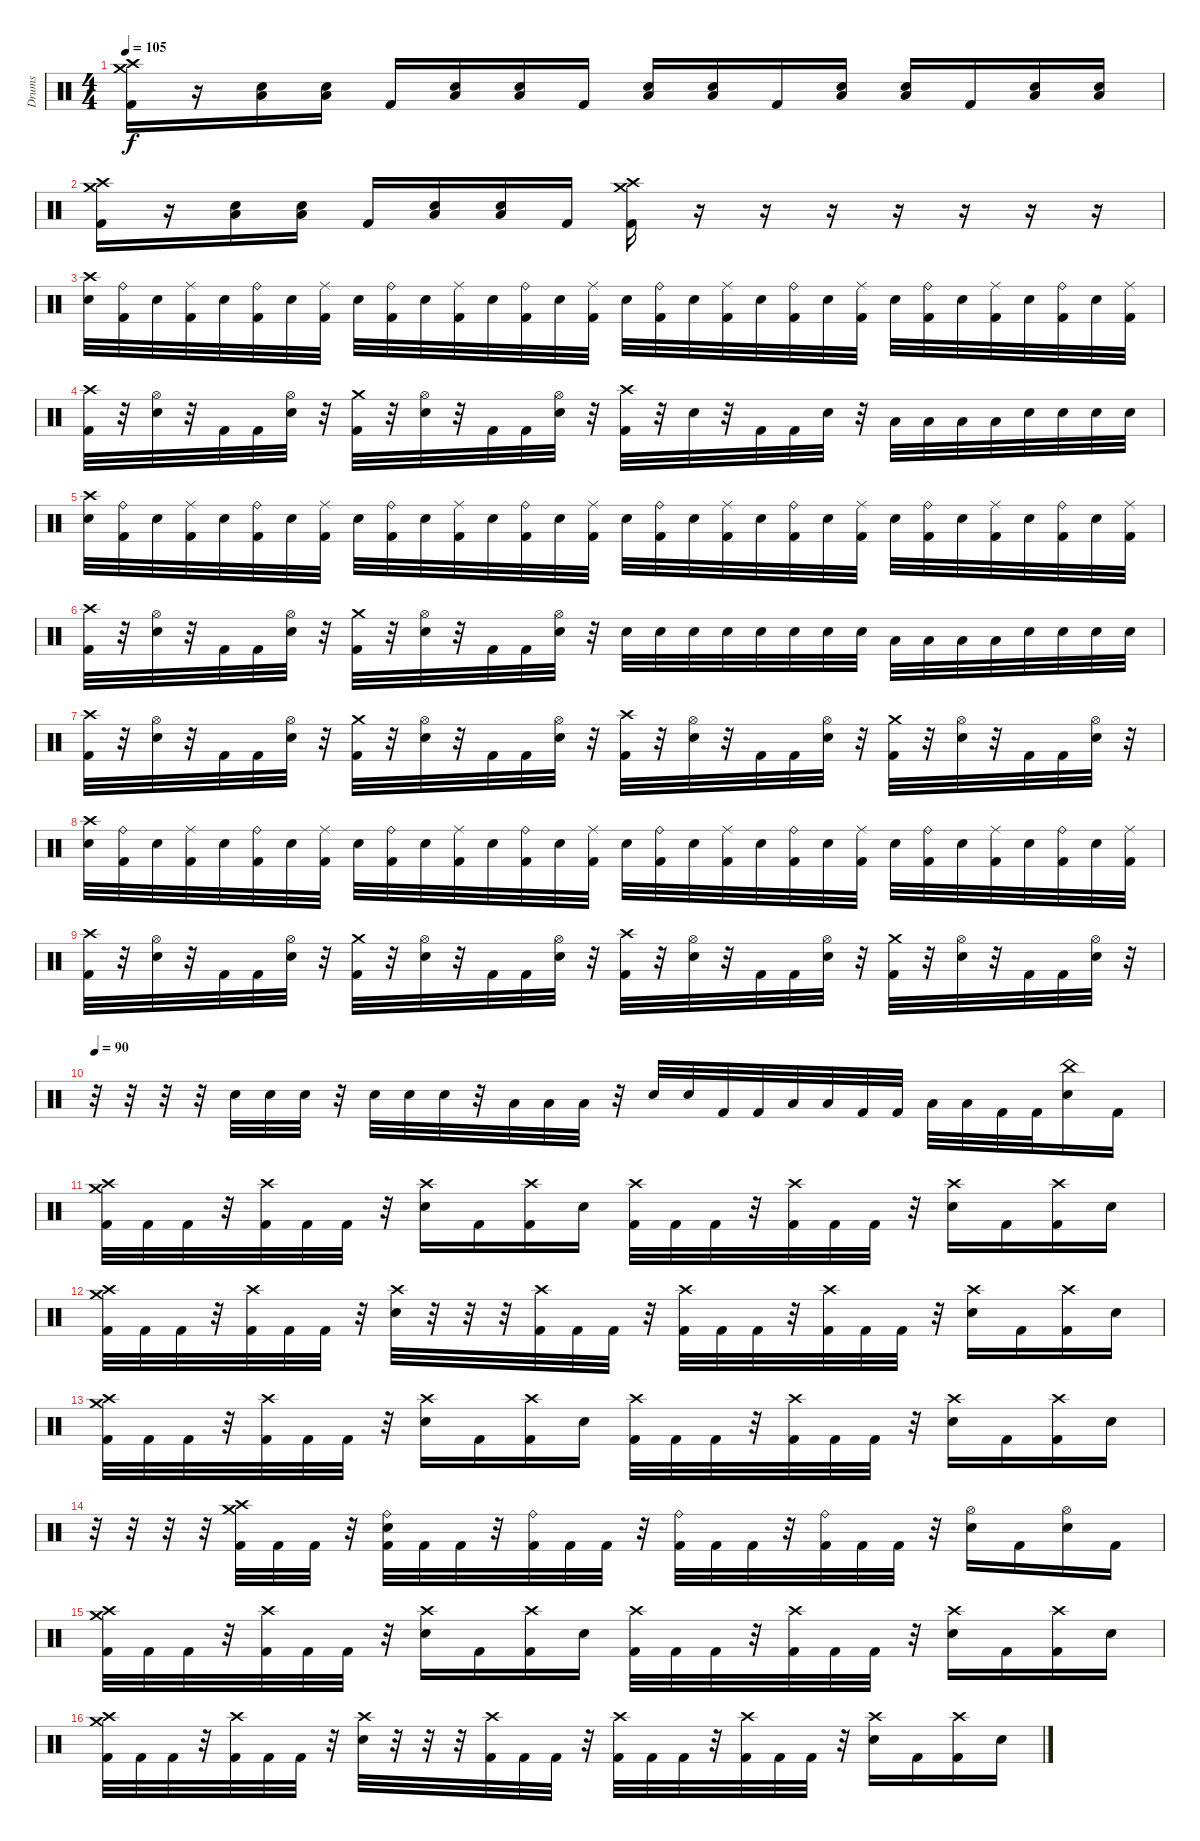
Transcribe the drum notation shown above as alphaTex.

\track ("Drums" "Drums") {instrument percussion}
\staff {score}
\articulation defaults
\ts (4 4)
\tempo 105
\clef neutral
\ks c
("Crash medium (hit)" "Crash high (hit)" "Kick (hit) 2").16{dy f} r.16 ("Low Floor Tom (hit)" "Electric Snare (hit)").16 ("Low Floor Tom (hit)" "Electric Snare (hit)").16 "Kick (hit) 2".16 ("Low Floor Tom (hit)" "Electric Snare (hit)").16 ("Low Floor Tom (hit)" "Electric Snare (hit)").16 "Kick (hit) 2".16 ("Low Floor Tom (hit)" "Electric Snare (hit)").16 ("Low Floor Tom (hit)" "Electric Snare (hit)").16 "Kick (hit) 2".16 ("Low Floor Tom (hit)" "Electric Snare (hit)").16 ("Low Floor Tom (hit)" "Electric Snare (hit)").16 "Kick (hit) 2".16 ("Low Floor Tom (hit)" "Electric Snare (hit)").16 ("Low Floor Tom (hit)" "Electric Snare (hit)").16 |
("Crash medium (hit)" "Crash high (hit)" "Kick (hit) 2").16 r.16 ("Low Floor Tom (hit)" "Electric Snare (hit)").16 ("Low Floor Tom (hit)" "Electric Snare (hit)").16 "Kick (hit) 2".16 ("Low Floor Tom (hit)" "Electric Snare (hit)").16 ("Low Floor Tom (hit)" "Electric Snare (hit)").16 "Kick (hit) 2".16 ("Crash high (hit)" "Crash medium (hit)" "Kick (hit) 2").16 r.16{volume 0} r.16 r.16 r.16 r.16 r.16 r.16 |
("Crash high (hit)" "Electric Snare (hit)").32{volume 13} ("Ride (bell)" "Kick (hit) 2").32 "Electric Snare (hit)".32 ("Ride (middle)" "Kick (hit) 2").32 "Electric Snare (hit)".32 ("Ride (bell)" "Kick (hit) 2").32 "Electric Snare (hit)".32 ("Ride (middle)" "Kick (hit) 2").32 "Electric Snare (hit)".32 ("Ride (bell)" "Kick (hit) 2").32 "Electric Snare (hit)".32 ("Ride (middle)" "Kick (hit) 2").32 "Electric Snare (hit)".32 ("Ride (bell)" "Kick (hit) 2").32 "Electric Snare (hit)".32 ("Ride (middle)" "Kick (hit) 2").32 "Electric Snare (hit)".32 ("Ride (bell)" "Kick (hit) 2").32 "Electric Snare (hit)".32 ("Ride (middle)" "Kick (hit) 2").32 "Electric Snare (hit)".32 ("Ride (bell)" "Kick (hit) 2").32 "Electric Snare (hit)".32 ("Ride (middle)" "Kick (hit) 2").32 "Electric Snare (hit)".32 ("Ride (bell)" "Kick (hit) 2").32 "Electric Snare (hit)".32 ("Ride (middle)" "Kick (hit) 2").32 "Electric Snare (hit)".32 ("Ride (bell)" "Kick (hit) 2").32 "Electric Snare (hit)".32 ("Ride (middle)" "Kick (hit) 2").32 |
("Crash high (hit)" "Kick (hit) 2").32 r.32 ("Hi-Hat (open)" "Electric Snare (hit)").32 r.32 "Kick (hit) 2".32 "Kick (hit) 2".32 ("Hi-Hat (open)" "Electric Snare (hit)").32 r.32 ("Crash medium (hit)" "Kick (hit) 2").32 r.32 ("Hi-Hat (open)" "Electric Snare (hit)").32 r.32 "Kick (hit) 2".32 "Kick (hit) 2".32 ("Hi-Hat (open)" "Electric Snare (hit)").32 r.32 ("Crash high (hit)" "Kick (hit) 2").32 r.32 "Electric Snare (hit)".32 r.32 "Kick (hit) 2".32 "Kick (hit) 2".32 "Electric Snare (hit)".32 r.32 "Low Tom (hit)".32 "Low Tom (hit)".32 "Low Tom (hit)".32 "Low Tom (hit)".32 "Electric Snare (hit)".32 "Electric Snare (hit)".32 "Electric Snare (hit)".32 "Electric Snare (hit)".32 |
("Crash high (hit)" "Electric Snare (hit)").32{volume 13} ("Ride (bell)" "Kick (hit) 2").32 "Electric Snare (hit)".32 ("Ride (middle)" "Kick (hit) 2").32 "Electric Snare (hit)".32 ("Ride (bell)" "Kick (hit) 2").32 "Electric Snare (hit)".32 ("Ride (middle)" "Kick (hit) 2").32 "Electric Snare (hit)".32 ("Ride (bell)" "Kick (hit) 2").32 "Electric Snare (hit)".32 ("Ride (middle)" "Kick (hit) 2").32 "Electric Snare (hit)".32 ("Ride (bell)" "Kick (hit) 2").32 "Electric Snare (hit)".32 ("Ride (middle)" "Kick (hit) 2").32 "Electric Snare (hit)".32 ("Ride (bell)" "Kick (hit) 2").32 "Electric Snare (hit)".32 ("Ride (middle)" "Kick (hit) 2").32 "Electric Snare (hit)".32 ("Ride (bell)" "Kick (hit) 2").32 "Electric Snare (hit)".32 ("Ride (middle)" "Kick (hit) 2").32 "Electric Snare (hit)".32 ("Ride (bell)" "Kick (hit) 2").32 "Electric Snare (hit)".32 ("Ride (middle)" "Kick (hit) 2").32 "Electric Snare (hit)".32 ("Ride (bell)" "Kick (hit) 2").32 "Electric Snare (hit)".32 ("Ride (middle)" "Kick (hit) 2").32 |
("Crash high (hit)" "Kick (hit) 2").32 r.32 ("Hi-Hat (open)" "Electric Snare (hit)").32 r.32 "Kick (hit) 2".32 "Kick (hit) 2".32 ("Hi-Hat (open)" "Electric Snare (hit)").32 r.32 ("Crash medium (hit)" "Kick (hit) 2").32 r.32 ("Hi-Hat (open)" "Electric Snare (hit)").32 r.32 "Kick (hit) 2".32 "Kick (hit) 2".32 ("Hi-Hat (open)" "Electric Snare (hit)").32 r.32 "Electric Snare (hit)".32 "Electric Snare (hit)".32 "Electric Snare (hit)".32 "Electric Snare (hit)".32 "Electric Snare (hit)".32 "Electric Snare (hit)".32 "Electric Snare (hit)".32 "Electric Snare (hit)".32 "Low Tom (hit)".32 "Low Tom (hit)".32 "Low Tom (hit)".32 "Low Tom (hit)".32 "Electric Snare (hit)".32 "Electric Snare (hit)".32 "Electric Snare (hit)".32 "Electric Snare (hit)".32 |
("Crash high (hit)" "Kick (hit) 2").32 r.32 ("Hi-Hat (open)" "Electric Snare (hit)").32 r.32 "Kick (hit) 2".32 "Kick (hit) 2".32 ("Hi-Hat (open)" "Electric Snare (hit)").32 r.32 ("Crash medium (hit)" "Kick (hit) 2").32 r.32 ("Hi-Hat (open)" "Electric Snare (hit)").32 r.32 "Kick (hit) 2".32 "Kick (hit) 2".32 ("Hi-Hat (open)" "Electric Snare (hit)").32 r.32 ("Crash high (hit)" "Kick (hit) 2").32 r.32 ("Hi-Hat (open)" "Electric Snare (hit)").32 r.32 "Kick (hit) 2".32 "Kick (hit) 2".32 ("Hi-Hat (open)" "Electric Snare (hit)").32 r.32 ("Crash medium (hit)" "Kick (hit) 2").32 r.32 ("Hi-Hat (open)" "Electric Snare (hit)").32 r.32 "Kick (hit) 2".32 "Kick (hit) 2".32 ("Hi-Hat (open)" "Electric Snare (hit)").32 r.32 |
("Crash high (hit)" "Electric Snare (hit)").32{volume 13} ("Ride (bell)" "Kick (hit) 2").32 "Electric Snare (hit)".32 ("Ride (middle)" "Kick (hit) 2").32 "Electric Snare (hit)".32 ("Ride (bell)" "Kick (hit) 2").32 "Electric Snare (hit)".32 ("Ride (middle)" "Kick (hit) 2").32 "Electric Snare (hit)".32 ("Ride (bell)" "Kick (hit) 2").32 "Electric Snare (hit)".32 ("Ride (middle)" "Kick (hit) 2").32 "Electric Snare (hit)".32 ("Ride (bell)" "Kick (hit) 2").32 "Electric Snare (hit)".32 ("Ride (middle)" "Kick (hit) 2").32 "Electric Snare (hit)".32 ("Ride (bell)" "Kick (hit) 2").32 "Electric Snare (hit)".32 ("Ride (middle)" "Kick (hit) 2").32 "Electric Snare (hit)".32 ("Ride (bell)" "Kick (hit) 2").32 "Electric Snare (hit)".32 ("Ride (middle)" "Kick (hit) 2").32 "Electric Snare (hit)".32 ("Ride (bell)" "Kick (hit) 2").32 "Electric Snare (hit)".32 ("Ride (middle)" "Kick (hit) 2").32 "Electric Snare (hit)".32 ("Ride (bell)" "Kick (hit) 2").32 "Electric Snare (hit)".32 ("Ride (middle)" "Kick (hit) 2").32 |
("Crash high (hit)" "Kick (hit) 2").32 r.32 ("Hi-Hat (open)" "Electric Snare (hit)").32 r.32 "Kick (hit) 2".32 "Kick (hit) 2".32 ("Hi-Hat (open)" "Electric Snare (hit)").32 r.32 ("Crash medium (hit)" "Kick (hit) 2").32 r.32 ("Hi-Hat (open)" "Electric Snare (hit)").32 r.32 "Kick (hit) 2".32 "Kick (hit) 2".32 ("Hi-Hat (open)" "Electric Snare (hit)").32 r.32 ("Crash high (hit)" "Kick (hit) 2").32 r.32 ("Hi-Hat (open)" "Electric Snare (hit)").32 r.32 "Kick (hit) 2".32 "Kick (hit) 2".32 ("Hi-Hat (open)" "Electric Snare (hit)").32 r.32 ("Crash medium (hit)" "Kick (hit) 2").32 r.32 ("Hi-Hat (open)" "Electric Snare (hit)").32 r.32 "Kick (hit) 2".32 "Kick (hit) 2".32 ("Hi-Hat (open)" "Electric Snare (hit)").32 r.32 |
\tempo 90
r.32 r.32 r.32 r.32 "Electric Snare (hit)".32 "Electric Snare (hit)".32 "Electric Snare (hit)".32 r.32 "Electric Snare (hit)".32 "Electric Snare (hit)".32 "Electric Snare (hit)".32 r.32 "Low Tom (hit)".32 "Low Tom (hit)".32 "Low Tom (hit)".32 r.32 "Electric Snare (hit)".32 "Electric Snare (hit)".32 "Kick (hit) 2".32 "Kick (hit) 2".32 "Low Tom (hit)".32 "Low Tom (hit)".32 "Kick (hit) 2".32 "Kick (hit) 2".32 "Low Floor Tom (hit)".32 "Low Floor Tom (hit)".32 "Kick (hit) 2".32 "Kick (hit) 2".32 ("China (hit)" "Electric Snare (hit)").16 "Kick (hit) 2".16 |
("Crash medium (hit)" "Crash high (hit)" "Kick (hit) 2").32 "Kick (hit) 2".32 "Kick (hit) 2".32 r.32 ("Crash high (hit)" "Kick (hit) 2").32 "Kick (hit) 2".32 "Kick (hit) 2".32 r.32 ("Crash high (hit)" "Electric Snare (hit)").16 "Kick (hit) 2".16 ("Crash high (hit)" "Kick (hit) 2").16 "Electric Snare (hit)".16 ("Crash high (hit)" "Kick (hit) 2").32 "Kick (hit) 2".32 "Kick (hit) 2".32 r.32 ("Crash high (hit)" "Kick (hit) 2").32 "Kick (hit) 2".32 "Kick (hit) 2".32 r.32 ("Crash high (hit)" "Electric Snare (hit)").16 "Kick (hit) 2".16 ("Crash high (hit)" "Kick (hit) 2").16 "Electric Snare (hit)".16 |
("Crash medium (hit)" "Crash high (hit)" "Kick (hit) 2").32 "Kick (hit) 2".32 "Kick (hit) 2".32 r.32 ("Crash high (hit)" "Kick (hit) 2").32 "Kick (hit) 2".32 "Kick (hit) 2".32 r.32 ("Crash high (hit)" "Electric Snare (hit)").32 r.32 r.32 r.32 ("Crash high (hit)" "Kick (hit) 2").32 "Kick (hit) 2".32 "Kick (hit) 2".32 r.32 ("Crash high (hit)" "Kick (hit) 2").32 "Kick (hit) 2".32 "Kick (hit) 2".32 r.32 ("Crash high (hit)" "Kick (hit) 2").32 "Kick (hit) 2".32 "Kick (hit) 2".32 r.32 ("Crash high (hit)" "Electric Snare (hit)").16 "Kick (hit) 2".16 ("Crash high (hit)" "Kick (hit) 2").16 "Electric Snare (hit)".16 |
("Crash medium (hit)" "Crash high (hit)" "Kick (hit) 2").32 "Kick (hit) 2".32 "Kick (hit) 2".32 r.32 ("Crash high (hit)" "Kick (hit) 2").32 "Kick (hit) 2".32 "Kick (hit) 2".32 r.32 ("Crash high (hit)" "Electric Snare (hit)").16 "Kick (hit) 2".16 ("Crash high (hit)" "Kick (hit) 2").16 "Electric Snare (hit)".16 ("Crash high (hit)" "Kick (hit) 2").32 "Kick (hit) 2".32 "Kick (hit) 2".32 r.32 ("Crash high (hit)" "Kick (hit) 2").32 "Kick (hit) 2".32 "Kick (hit) 2".32 r.32 ("Crash high (hit)" "Electric Snare (hit)").16 "Kick (hit) 2".16 ("Crash high (hit)" "Kick (hit) 2").16 "Electric Snare (hit)".16 |
r.32 r.32 r.32 r.32 ("Crash medium (hit)" "Crash high (hit)" "Kick (hit) 2").32 "Kick (hit) 2".32 "Kick (hit) 2".32 r.32 ("Ride (bell)" "Electric Snare (hit)" "Kick (hit) 2").32 "Kick (hit) 2".32 "Kick (hit) 2".32 r.32 ("Ride (bell)" "Kick (hit) 2").32 "Kick (hit) 2".32 "Kick (hit) 2".32 r.32 ("Ride (bell)" "Kick (hit) 2").32 "Kick (hit) 2".32 "Kick (hit) 2".32 r.32 ("Ride (bell)" "Kick (hit) 2").32 "Kick (hit) 2".32 "Kick (hit) 2".32 r.32 ("Hi-Hat (open)" "Electric Snare (hit)").16 "Kick (hit) 2".16 ("Hi-Hat (open)" "Electric Snare (hit)").16 "Kick (hit) 2".16 |
("Crash medium (hit)" "Crash high (hit)" "Kick (hit) 2").32 "Kick (hit) 2".32 "Kick (hit) 2".32 r.32 ("Crash high (hit)" "Kick (hit) 2").32 "Kick (hit) 2".32 "Kick (hit) 2".32 r.32 ("Crash high (hit)" "Electric Snare (hit)").16 "Kick (hit) 2".16 ("Crash high (hit)" "Kick (hit) 2").16 "Electric Snare (hit)".16 ("Crash high (hit)" "Kick (hit) 2").32 "Kick (hit) 2".32 "Kick (hit) 2".32 r.32 ("Crash high (hit)" "Kick (hit) 2").32 "Kick (hit) 2".32 "Kick (hit) 2".32 r.32 ("Crash high (hit)" "Electric Snare (hit)").16 "Kick (hit) 2".16 ("Crash high (hit)" "Kick (hit) 2").16 "Electric Snare (hit)".16 |
("Crash medium (hit)" "Crash high (hit)" "Kick (hit) 2").32 "Kick (hit) 2".32 "Kick (hit) 2".32 r.32 ("Crash high (hit)" "Kick (hit) 2").32 "Kick (hit) 2".32 "Kick (hit) 2".32 r.32 ("Crash high (hit)" "Electric Snare (hit)").32 r.32 r.32 r.32 ("Crash high (hit)" "Kick (hit) 2").32 "Kick (hit) 2".32 "Kick (hit) 2".32 r.32 ("Crash high (hit)" "Kick (hit) 2").32 "Kick (hit) 2".32 "Kick (hit) 2".32 r.32 ("Crash high (hit)" "Kick (hit) 2").32 "Kick (hit) 2".32 "Kick (hit) 2".32 r.32 ("Crash high (hit)" "Electric Snare (hit)").16 "Kick (hit) 2".16 ("Crash high (hit)" "Kick (hit) 2").16 "Electric Snare (hit)".16
